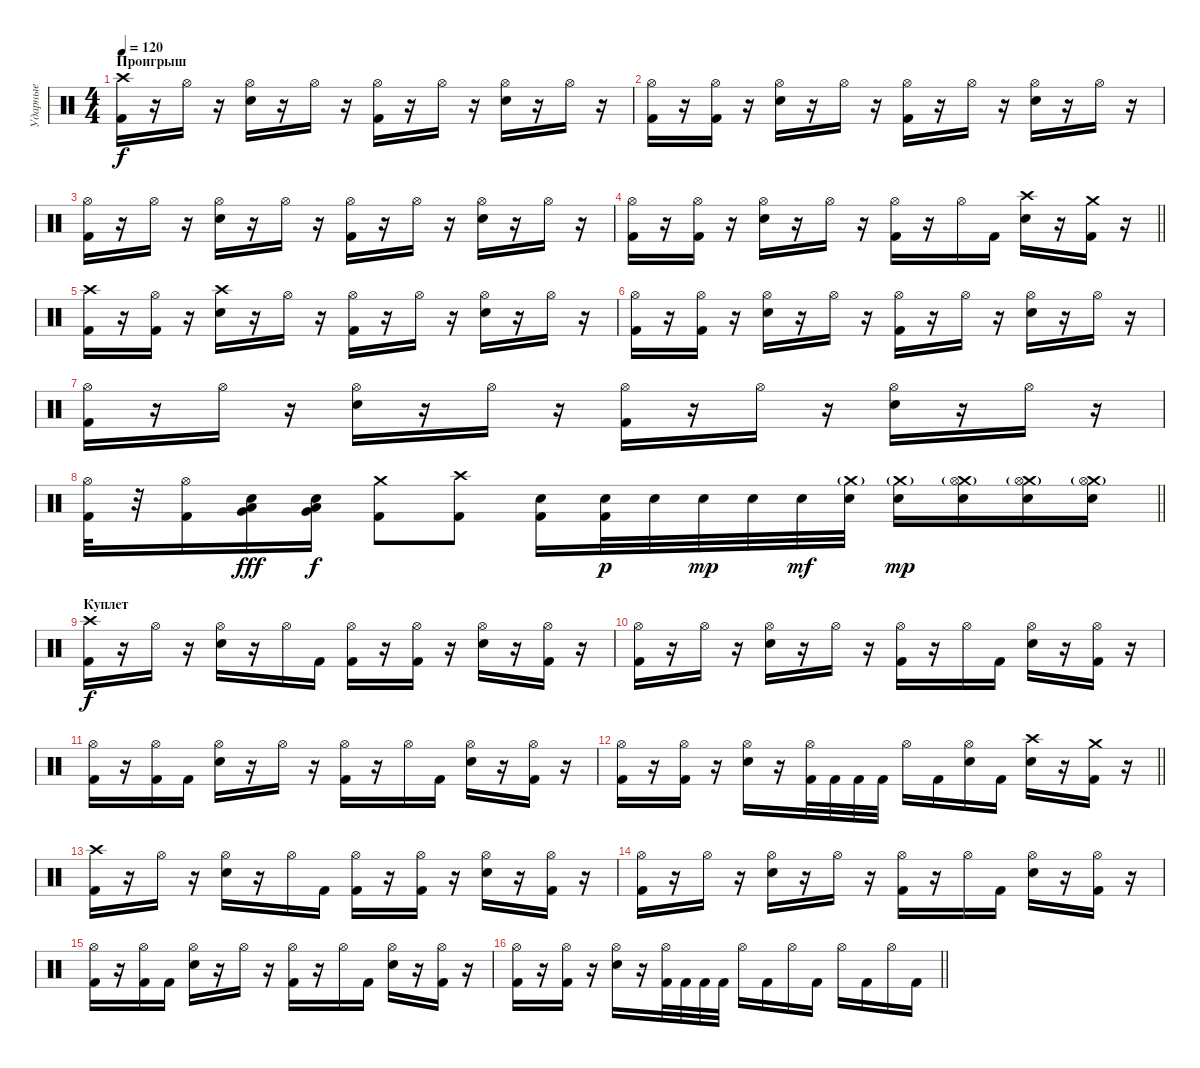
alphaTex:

\track ("Ударные" "Ударные") {instrument percussion}
\staff {score}
\articulation defaults
\ts (4 4)
\section ("" "Проигрыш")
\tempo 120
\clef neutral
\ks c
("Crash high (hit)" "Kick (hit) 2").16{dy f} r.16 "Hi-Hat (open)".16 r.16 ("Hi-Hat (open)" "Snare (hit) 2").16 r.16 "Hi-Hat (open)".16 r.16 ("Hi-Hat (open)" "Kick (hit) 2").16 r.16 "Hi-Hat (open)".16 r.16 ("Hi-Hat (open)" "Snare (hit) 2").16 r.16 "Hi-Hat (open)".16 r.16 |
("Hi-Hat (open)" "Kick (hit) 2").16 r.16 ("Hi-Hat (open)" "Kick (hit) 2").16 r.16 ("Hi-Hat (open)" "Snare (hit) 2").16 r.16 "Hi-Hat (open)".16 r.16 ("Hi-Hat (open)" "Kick (hit) 2").16 r.16 "Hi-Hat (open)".16 r.16 ("Hi-Hat (open)" "Snare (hit) 2").16 r.16 "Hi-Hat (open)".16 r.16 |
("Hi-Hat (open)" "Kick (hit) 2").16 r.16 "Hi-Hat (open)".16 r.16 ("Hi-Hat (open)" "Snare (hit) 2").16 r.16 "Hi-Hat (open)".16 r.16 ("Hi-Hat (open)" "Kick (hit) 2").16 r.16 "Hi-Hat (open)".16 r.16 ("Hi-Hat (open)" "Snare (hit) 2").16 r.16 "Hi-Hat (open)".16 r.16 |
\barLineRight lightlight
("Hi-Hat (open)" "Kick (hit) 2").16 r.16 ("Hi-Hat (open)" "Kick (hit) 2").16 r.16 ("Hi-Hat (open)" "Snare (hit) 2").16 r.16 "Hi-Hat (open)".16 r.16 ("Hi-Hat (open)" "Kick (hit) 2").16 r.16 "Hi-Hat (open)".16 "Kick (hit) 2".16 ("Crash high (hit)" "Snare (hit) 2").16 r.16 ("Crash medium (hit)" "Kick (hit) 2").16 r.16 |
("Crash high (hit)" "Kick (hit) 2").16 r.16 ("Hi-Hat (open)" "Kick (hit) 2").16 r.16 ("Crash high (hit)" "Snare (hit) 2").16 r.16 "Hi-Hat (open)".16 r.16 ("Hi-Hat (open)" "Kick (hit) 2").16 r.16 "Hi-Hat (open)".16 r.16 ("Hi-Hat (open)" "Snare (hit) 2").16 r.16 "Hi-Hat (open)".16 r.16 |
("Hi-Hat (open)" "Kick (hit) 2").16 r.16 ("Hi-Hat (open)" "Kick (hit) 2").16 r.16 ("Hi-Hat (open)" "Snare (hit) 2").16 r.16 "Hi-Hat (open)".16 r.16 ("Hi-Hat (open)" "Kick (hit) 2").16 r.16 "Hi-Hat (open)".16 r.16 ("Hi-Hat (open)" "Snare (hit) 2").16 r.16 "Hi-Hat (open)".16 r.16 |
("Hi-Hat (open)" "Kick (hit) 2").16 r.16 "Hi-Hat (open)".16 r.16 ("Hi-Hat (open)" "Snare (hit) 2").16 r.16 "Hi-Hat (open)".16 r.16 ("Hi-Hat (open)" "Kick (hit) 2").16 r.16 "Hi-Hat (open)".16 r.16 ("Hi-Hat (open)" "Snare (hit) 2").16 r.16 "Hi-Hat (open)".16 r.16 |
\barLineRight lightlight
("Hi-Hat (open)" "Kick (hit) 2").32 r.32 ("Hi-Hat (open)" "Kick (hit) 2").16 ("Very Low Tom (hit)" "Low Floor Tom (hit)" "Snare (hit) 2").16{dy fff} ("Low Floor Tom (hit)" "Very Low Tom (hit)" "Snare (hit) 2").16{dy f} ("Kick (hit) 2" "Crash medium (hit)").8 ("Kick (hit) 2" "Crash high (hit)").8 ("Kick (hit) 2" "Snare (hit) 2").16 ("Kick (hit) 2" "Snare (hit) 2").32{dy p} "Snare (hit) 2".32 "Snare (hit) 2".32{dy mp} "Snare (hit) 2".32 "Snare (hit) 2".32{dy mf} ("Crash medium (hit)"{g} "Snare (hit) 2").32 ("Crash medium (hit)"{g} "Snare (hit) 2").16{dy mp} ("Crash medium (hit)"{g} "Hi-Hat (open)"{g} "Snare (hit) 2").16 ("Crash medium (hit)"{g} "Hi-Hat (open)"{g} "Snare (hit) 2").16 ("Crash medium (hit)"{g} "Hi-Hat (open)"{g} "Snare (hit) 2").16 |
\section ("" "Куплет")
("Crash high (hit)" "Kick (hit) 2").16{dy f} r.16 "Hi-Hat (open)".16 r.16 ("Hi-Hat (open)" "Snare (hit) 2").16 r.16 "Hi-Hat (open)".16 "Kick (hit) 2".16 ("Hi-Hat (open)" "Kick (hit) 2").16 r.16 ("Hi-Hat (open)" "Kick (hit) 2").16 r.16 ("Hi-Hat (open)" "Snare (hit) 2").16 r.16 ("Hi-Hat (open)" "Kick (hit) 2").16 r.16 |
("Hi-Hat (open)" "Kick (hit) 2").16 r.16 "Hi-Hat (open)".16 r.16 ("Hi-Hat (open)" "Snare (hit) 2").16 r.16 "Hi-Hat (open)".16 r.16 ("Hi-Hat (open)" "Kick (hit) 2").16 r.16 "Hi-Hat (open)".16 "Kick (hit) 2".16 ("Hi-Hat (open)" "Snare (hit) 2").16 r.16 ("Hi-Hat (open)" "Kick (hit) 2").16 r.16 |
("Hi-Hat (open)" "Kick (hit) 2").16 r.16 ("Hi-Hat (open)" "Kick (hit) 2").16 "Kick (hit) 2".16 ("Hi-Hat (open)" "Snare (hit) 2").16 r.16 "Hi-Hat (open)".16 r.16 ("Hi-Hat (open)" "Kick (hit) 2").16 r.16 "Hi-Hat (open)".16 "Kick (hit) 2".16 ("Hi-Hat (open)" "Snare (hit) 2").16 r.16 ("Hi-Hat (open)" "Kick (hit) 2").16 r.16 |
\barLineRight lightlight
("Hi-Hat (open)" "Kick (hit) 2").16 r.16 ("Hi-Hat (open)" "Kick (hit) 2").16 r.16 ("Hi-Hat (open)" "Snare (hit) 2").16 r.16 ("Hi-Hat (open)" "Kick (hit) 2").32 "Kick (hit) 2".32 "Kick (hit) 2".32 "Kick (hit) 2".32 "Hi-Hat (open)".16 "Kick (hit) 2".16 ("Hi-Hat (open)" "Snare (hit) 2").16 "Kick (hit) 2".16 ("Crash high (hit)" "Snare (hit) 2").16 r.16 ("Crash medium (hit)" "Kick (hit) 2").16 r.16 |
("Crash high (hit)" "Kick (hit) 2").16 r.16 "Hi-Hat (open)".16 r.16 ("Hi-Hat (open)" "Snare (hit) 2").16 r.16 "Hi-Hat (open)".16 "Kick (hit) 2".16 ("Hi-Hat (open)" "Kick (hit) 2").16 r.16 ("Hi-Hat (open)" "Kick (hit) 2").16 r.16 ("Hi-Hat (open)" "Snare (hit) 2").16 r.16 ("Hi-Hat (open)" "Kick (hit) 2").16 r.16 |
("Hi-Hat (open)" "Kick (hit) 2").16 r.16 "Hi-Hat (open)".16 r.16 ("Hi-Hat (open)" "Snare (hit) 2").16 r.16 "Hi-Hat (open)".16 r.16 ("Hi-Hat (open)" "Kick (hit) 2").16 r.16 "Hi-Hat (open)".16 "Kick (hit) 2".16 ("Hi-Hat (open)" "Snare (hit) 2").16 r.16 ("Hi-Hat (open)" "Kick (hit) 2").16 r.16 |
("Hi-Hat (open)" "Kick (hit) 2").16 r.16 ("Hi-Hat (open)" "Kick (hit) 2").16 "Kick (hit) 2".16 ("Hi-Hat (open)" "Snare (hit) 2").16 r.16 "Hi-Hat (open)".16 r.16 ("Hi-Hat (open)" "Kick (hit) 2").16 r.16 "Hi-Hat (open)".16 "Kick (hit) 2".16 ("Hi-Hat (open)" "Snare (hit) 2").16 r.16 ("Hi-Hat (open)" "Kick (hit) 2").16 r.16 |
\barLineRight lightlight
("Hi-Hat (open)" "Kick (hit) 2").16 r.16 ("Hi-Hat (open)" "Kick (hit) 2").16 r.16 ("Hi-Hat (open)" "Snare (hit) 2").16 r.16 ("Hi-Hat (open)" "Kick (hit) 2").32 "Kick (hit) 2".32 "Kick (hit) 2".32 "Kick (hit) 2".32 "Hi-Hat (open)".16 "Kick (hit) 2".16 "Hi-Hat (open)".16 "Kick (hit) 2".16 "Hi-Hat (open)".16 "Kick (hit) 2".16 "Hi-Hat (open)".16 "Kick (hit) 2".16
